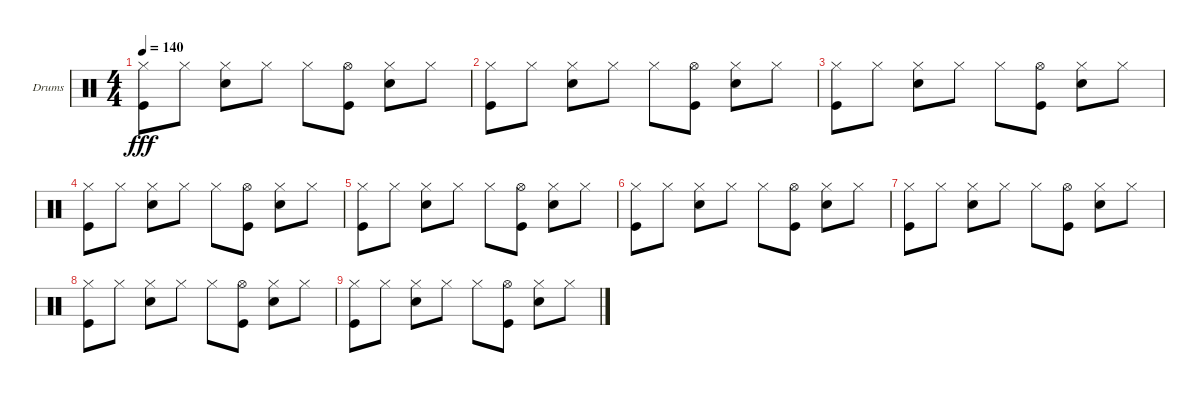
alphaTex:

\bracketExtendMode groupsimilarinstruments
\firstSystemTrackNameOrientation horizontal
\otherSystemsTrackNameOrientation horizontal
\track ("Drumkit" "Drums") {instrument percussion}
\staff {score}
\articulation defaults
\ts (4 4)
\tempo 140
\clef neutral
\ks c
("Hi-Hat (closed)" "Kick (hit)").8{dy fff} "Hi-Hat (closed)".8 ("Hi-Hat (closed)" "Snare (hit) 2").8 "Hi-Hat (closed)".8 "Hi-Hat (closed)".8 ("Hi-Hat (open)" "Kick (hit)").8 ("Hi-Hat (closed)" "Snare (hit) 2").8 "Hi-Hat (closed)".8 |
("Hi-Hat (closed)" "Kick (hit)").8 "Hi-Hat (closed)".8 ("Hi-Hat (closed)" "Snare (hit) 2").8 "Hi-Hat (closed)".8 "Hi-Hat (closed)".8 ("Hi-Hat (open)" "Kick (hit)").8 ("Hi-Hat (closed)" "Snare (hit) 2").8 "Hi-Hat (closed)".8 |
("Hi-Hat (closed)" "Kick (hit)").8 "Hi-Hat (closed)".8 ("Hi-Hat (closed)" "Snare (hit) 2").8 "Hi-Hat (closed)".8 "Hi-Hat (closed)".8 ("Hi-Hat (open)" "Kick (hit)").8 ("Hi-Hat (closed)" "Snare (hit) 2").8 "Hi-Hat (closed)".8 |
("Hi-Hat (closed)" "Kick (hit)").8 "Hi-Hat (closed)".8 ("Hi-Hat (closed)" "Snare (hit) 2").8 "Hi-Hat (closed)".8 "Hi-Hat (closed)".8 ("Hi-Hat (open)" "Kick (hit)").8 ("Hi-Hat (closed)" "Snare (hit) 2").8 "Hi-Hat (closed)".8 |
("Hi-Hat (closed)" "Kick (hit)").8 "Hi-Hat (closed)".8 ("Hi-Hat (closed)" "Snare (hit) 2").8 "Hi-Hat (closed)".8 "Hi-Hat (closed)".8 ("Hi-Hat (open)" "Kick (hit)").8 ("Hi-Hat (closed)" "Snare (hit) 2").8 "Hi-Hat (closed)".8 |
("Hi-Hat (closed)" "Kick (hit)").8 "Hi-Hat (closed)".8 ("Hi-Hat (closed)" "Snare (hit) 2").8 "Hi-Hat (closed)".8 "Hi-Hat (closed)".8 ("Hi-Hat (open)" "Kick (hit)").8 ("Hi-Hat (closed)" "Snare (hit) 2").8 "Hi-Hat (closed)".8 |
("Hi-Hat (closed)" "Kick (hit)").8 "Hi-Hat (closed)".8 ("Hi-Hat (closed)" "Snare (hit) 2").8 "Hi-Hat (closed)".8 "Hi-Hat (closed)".8 ("Hi-Hat (open)" "Kick (hit)").8 ("Hi-Hat (closed)" "Snare (hit) 2").8 "Hi-Hat (closed)".8 |
("Hi-Hat (closed)" "Kick (hit)").8 "Hi-Hat (closed)".8 ("Hi-Hat (closed)" "Snare (hit) 2").8 "Hi-Hat (closed)".8 "Hi-Hat (closed)".8 ("Hi-Hat (open)" "Kick (hit)").8 ("Hi-Hat (closed)" "Snare (hit) 2").8 "Hi-Hat (closed)".8 |
("Hi-Hat (closed)" "Kick (hit)").8 "Hi-Hat (closed)".8 ("Hi-Hat (closed)" "Snare (hit) 2").8 "Hi-Hat (closed)".8 "Hi-Hat (closed)".8 ("Hi-Hat (open)" "Kick (hit)").8 ("Hi-Hat (closed)" "Snare (hit) 2").8 "Hi-Hat (closed)".8
